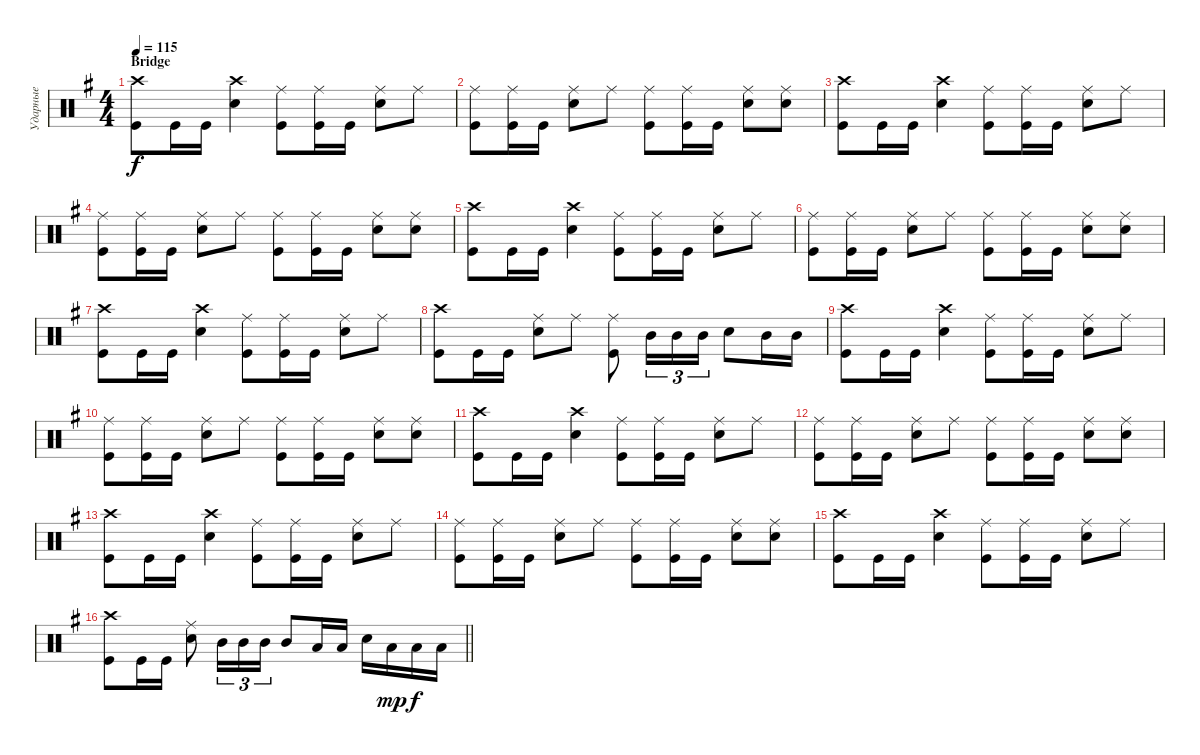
\track ("Ударные" "Ударные") {instrument percussion}
\staff {score}
\articulation defaults
\ts (4 4)
\section ("" "Bridge")
\tempo 115
\clef neutral
\ks eminor
("Kick (hit)" "Crash high (hit)").8{dy f} "Kick (hit)".16 "Kick (hit)".16 ("Snare (hit) 2" "Crash high (hit)").4 ("Kick (hit)" "Ride (middle)").8 ("Kick (hit)" "Ride (middle)").16 "Kick (hit)".16 ("Snare (hit) 2" "Ride (middle)").8 "Ride (middle)".8 |
("Kick (hit)" "Ride (middle)").8 ("Kick (hit)" "Ride (middle)").16 "Kick (hit)".16 ("Snare (hit) 2" "Ride (middle)").8 "Ride (middle)".8 ("Kick (hit)" "Ride (middle)").8 ("Kick (hit)" "Ride (middle)").16 "Kick (hit)".16 ("Snare (hit) 2" "Ride (middle)").8 ("Snare (hit) 2" "Ride (middle)").8 |
("Kick (hit)" "Crash high (hit)").8 "Kick (hit)".16 "Kick (hit)".16 ("Snare (hit) 2" "Crash high (hit)").4 ("Kick (hit)" "Ride (middle)").8 ("Kick (hit)" "Ride (middle)").16 "Kick (hit)".16 ("Snare (hit) 2" "Ride (middle)").8 "Ride (middle)".8 |
("Kick (hit)" "Ride (middle)").8 ("Kick (hit)" "Ride (middle)").16 "Kick (hit)".16 ("Snare (hit) 2" "Ride (middle)").8 "Ride (middle)".8 ("Kick (hit)" "Ride (middle)").8 ("Kick (hit)" "Ride (middle)").16 "Kick (hit)".16 ("Snare (hit) 2" "Ride (middle)").8 ("Snare (hit) 2" "Ride (middle)").8 |
("Kick (hit)" "Crash high (hit)").8 "Kick (hit)".16 "Kick (hit)".16 ("Snare (hit) 2" "Crash high (hit)").4 ("Kick (hit)" "Ride (middle)").8 ("Kick (hit)" "Ride (middle)").16 "Kick (hit)".16 ("Snare (hit) 2" "Ride (middle)").8 "Ride (middle)".8 |
("Kick (hit)" "Ride (middle)").8 ("Kick (hit)" "Ride (middle)").16 "Kick (hit)".16 ("Snare (hit) 2" "Ride (middle)").8 "Ride (middle)".8 ("Kick (hit)" "Ride (middle)").8 ("Kick (hit)" "Ride (middle)").16 "Kick (hit)".16 ("Snare (hit) 2" "Ride (middle)").8 ("Snare (hit) 2" "Ride (middle)").8 |
("Kick (hit)" "Crash high (hit)").8 "Kick (hit)".16 "Kick (hit)".16 ("Snare (hit) 2" "Crash high (hit)").4 ("Kick (hit)" "Ride (middle)").8 ("Kick (hit)" "Ride (middle)").16 "Kick (hit)".16 ("Snare (hit) 2" "Ride (middle)").8 "Ride (middle)".8 |
("Kick (hit)" "Crash high (hit)").8 "Kick (hit)".16 "Kick (hit)".16 ("Snare (hit) 2" "Ride (middle)").8 "Ride (middle)".8 ("Kick (hit)" "Ride (middle)").8 "Mid Tom (hit)".16{tu (3 2)} "Mid Tom (hit)".16{tu (3 2)} "Mid Tom (hit)".16{tu (3 2)} "Snare (hit) 2".8 "Mid Tom (hit)".16 "Mid Tom (hit)".16 |
("Kick (hit)" "Crash high (hit)").8 "Kick (hit)".16 "Kick (hit)".16 ("Snare (hit) 2" "Crash high (hit)").4 ("Kick (hit)" "Ride (middle)").8 ("Kick (hit)" "Ride (middle)").16 "Kick (hit)".16 ("Snare (hit) 2" "Ride (middle)").8 "Ride (middle)".8 |
("Kick (hit)" "Ride (middle)").8 ("Kick (hit)" "Ride (middle)").16 "Kick (hit)".16 ("Snare (hit) 2" "Ride (middle)").8 "Ride (middle)".8 ("Kick (hit)" "Ride (middle)").8 ("Kick (hit)" "Ride (middle)").16 "Kick (hit)".16 ("Snare (hit) 2" "Ride (middle)").8 ("Snare (hit) 2" "Ride (middle)").8 |
("Kick (hit)" "Crash high (hit)").8 "Kick (hit)".16 "Kick (hit)".16 ("Snare (hit) 2" "Crash high (hit)").4 ("Kick (hit)" "Ride (middle)").8 ("Kick (hit)" "Ride (middle)").16 "Kick (hit)".16 ("Snare (hit) 2" "Ride (middle)").8 "Ride (middle)".8 |
("Kick (hit)" "Ride (middle)").8 ("Kick (hit)" "Ride (middle)").16 "Kick (hit)".16 ("Snare (hit) 2" "Ride (middle)").8 "Ride (middle)".8 ("Kick (hit)" "Ride (middle)").8 ("Kick (hit)" "Ride (middle)").16 "Kick (hit)".16 ("Snare (hit) 2" "Ride (middle)").8 ("Snare (hit) 2" "Ride (middle)").8 |
("Kick (hit)" "Crash high (hit)").8 "Kick (hit)".16 "Kick (hit)".16 ("Snare (hit) 2" "Crash high (hit)").4 ("Kick (hit)" "Ride (middle)").8 ("Kick (hit)" "Ride (middle)").16 "Kick (hit)".16 ("Snare (hit) 2" "Ride (middle)").8 "Ride (middle)".8 |
("Kick (hit)" "Ride (middle)").8 ("Kick (hit)" "Ride (middle)").16 "Kick (hit)".16 ("Snare (hit) 2" "Ride (middle)").8 "Ride (middle)".8 ("Kick (hit)" "Ride (middle)").8 ("Kick (hit)" "Ride (middle)").16 "Kick (hit)".16 ("Snare (hit) 2" "Ride (middle)").8 ("Snare (hit) 2" "Ride (middle)").8 |
("Kick (hit)" "Crash high (hit)").8 "Kick (hit)".16 "Kick (hit)".16 ("Snare (hit) 2" "Crash high (hit)").4 ("Kick (hit)" "Ride (middle)").8 ("Kick (hit)" "Ride (middle)").16 "Kick (hit)".16 ("Snare (hit) 2" "Ride (middle)").8 "Ride (middle)".8 |
\barLineRight lightlight
("Kick (hit)" "Crash high (hit)").8 "Kick (hit)".16 "Kick (hit)".16 ("Snare (hit) 2" "Ride (middle)").8 "Mid Tom (hit)".16{tu (3 2)} "Mid Tom (hit)".16{tu (3 2)} "Mid Tom (hit)".16{tu (3 2)} "Mid Tom (hit)".8 "Low Tom (hit)".16 "Low Tom (hit)".16 "Snare (hit) 2".16 "Low Tom (hit)".16{dy mp} "Low Tom (hit)".16{dy f} "Low Tom (hit)".16
